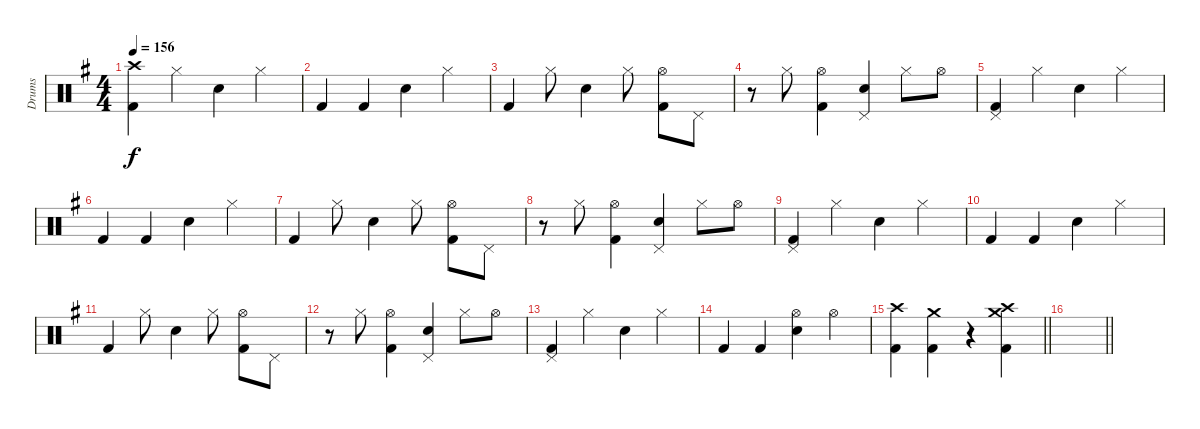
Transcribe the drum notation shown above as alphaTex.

\track ("Drums" "Drums") {instrument percussion}
\staff {score}
\articulation defaults
\ts (4 4)
\tempo 156
\clef neutral
\ks g
("Crash high (hit)" "Kick (hit) 2").4{dy f} "Hi-Hat (closed)".4 "Snare (hit) 2".4 "Hi-Hat (closed)".4 |
"Kick (hit) 2".4 "Kick (hit) 2".4 "Snare (hit) 2".4 "Hi-Hat (closed)".4 |
"Kick (hit) 2".4 "Hi-Hat (closed)".8 "Snare (hit) 2".4 "Hi-Hat (closed)".8 ("Hi-Hat (open)" "Kick (hit) 2").8 "Pedal Hi-Hat (hit)".8 |
r.8 "Hi-Hat (closed)".8 ("Hi-Hat (open)" "Kick (hit) 2").4 ("Pedal Hi-Hat (hit)" "Snare (hit) 2").4 "Hi-Hat (closed)".8 "Hi-Hat (open)".8 |
("Pedal Hi-Hat (hit)" "Kick (hit) 2").4 "Hi-Hat (closed)".4 "Snare (hit) 2".4 "Hi-Hat (closed)".4 |
"Kick (hit) 2".4 "Kick (hit) 2".4 "Snare (hit) 2".4 "Hi-Hat (closed)".4 |
"Kick (hit) 2".4 "Hi-Hat (closed)".8 "Snare (hit) 2".4 "Hi-Hat (closed)".8 ("Hi-Hat (open)" "Kick (hit) 2").8 "Pedal Hi-Hat (hit)".8 |
r.8 "Hi-Hat (closed)".8 ("Hi-Hat (open)" "Kick (hit) 2").4 ("Pedal Hi-Hat (hit)" "Snare (hit) 2").4 "Hi-Hat (closed)".8 "Hi-Hat (open)".8 |
("Pedal Hi-Hat (hit)" "Kick (hit) 2").4 "Hi-Hat (closed)".4 "Snare (hit) 2".4 "Hi-Hat (closed)".4 |
"Kick (hit) 2".4 "Kick (hit) 2".4 "Snare (hit) 2".4 "Hi-Hat (closed)".4 |
"Kick (hit) 2".4 "Hi-Hat (closed)".8 "Snare (hit) 2".4 "Hi-Hat (closed)".8 ("Hi-Hat (open)" "Kick (hit) 2").8 "Pedal Hi-Hat (hit)".8 |
r.8 "Hi-Hat (closed)".8 ("Hi-Hat (open)" "Kick (hit) 2").4 ("Pedal Hi-Hat (hit)" "Snare (hit) 2").4 "Hi-Hat (closed)".8 "Hi-Hat (open)".8 |
("Pedal Hi-Hat (hit)" "Kick (hit) 2").4 "Hi-Hat (closed)".4 "Snare (hit) 2".4 "Hi-Hat (closed)".4 |
"Kick (hit) 2".4 "Kick (hit) 2".4 ("Hi-Hat (open)" "Snare (hit) 2").4 "Hi-Hat (open)".4 |
\barLineRight lightlight
("Crash high (hit)" "Kick (hit) 2").4 ("Crash medium (hit)" "Kick (hit) 2").4 r.4 ("Crash high (hit)" "Crash medium (hit)" "Kick (hit) 2").4 |
\barLineRight lightlight
